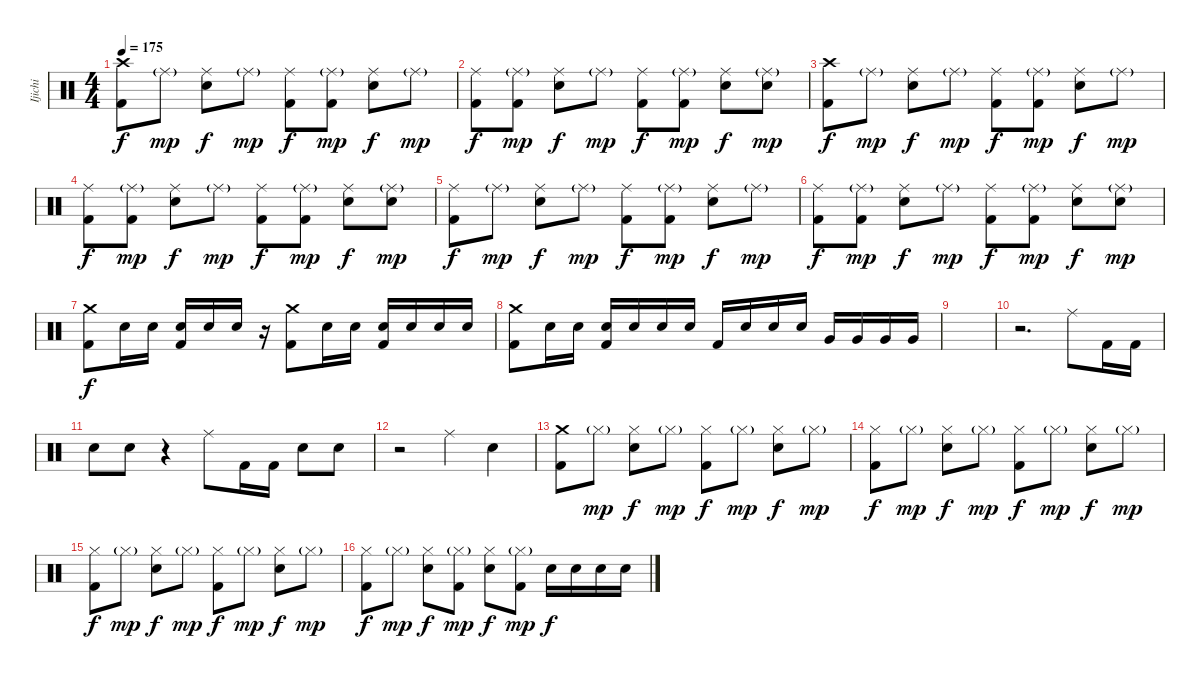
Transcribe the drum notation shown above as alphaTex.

\track ("Ijichi" "Ijichi") {instrument percussion}
\staff {score}
\articulation defaults
\ts (4 4)
\tempo 175
\clef neutral
\ks c
("Crash high (hit)" "Kick (hit) 2").8{dy f} "Ride (middle)"{g}.8{dy mp} ("Ride (middle)" "Electric Snare (hit)").8{dy f} "Ride (middle)"{g}.8{dy mp} ("Ride (middle)" "Kick (hit) 2").8{dy f} ("Ride (middle)"{g} "Kick (hit) 2").8{dy mp} ("Ride (middle)" "Electric Snare (hit)").8{dy f} "Ride (middle)"{g}.8{dy mp} |
("Ride (middle)" "Kick (hit) 2").8{dy f} ("Ride (middle)"{g} "Kick (hit) 2").8{dy mp} ("Ride (middle)" "Electric Snare (hit)").8{dy f} "Ride (middle)"{g}.8{dy mp} ("Ride (middle)" "Kick (hit) 2").8{dy f} ("Ride (middle)"{g} "Kick (hit) 2").8{dy mp} ("Ride (middle)" "Electric Snare (hit)").8{dy f} ("Ride (middle)"{g} "Electric Snare (hit)").8{dy mp} |
("Crash high (hit)" "Kick (hit) 2").8{dy f} "Ride (middle)"{g}.8{dy mp} ("Ride (middle)" "Electric Snare (hit)").8{dy f} "Ride (middle)"{g}.8{dy mp} ("Ride (middle)" "Kick (hit) 2").8{dy f} ("Ride (middle)"{g} "Kick (hit) 2").8{dy mp} ("Ride (middle)" "Electric Snare (hit)").8{dy f} "Ride (middle)"{g}.8{dy mp} |
("Ride (middle)" "Kick (hit) 2").8{dy f} ("Ride (middle)"{g} "Kick (hit) 2").8{dy mp} ("Ride (middle)" "Electric Snare (hit)").8{dy f} "Ride (middle)"{g}.8{dy mp} ("Ride (middle)" "Kick (hit) 2").8{dy f} ("Ride (middle)"{g} "Kick (hit) 2").8{dy mp} ("Ride (middle)" "Electric Snare (hit)").8{dy f} ("Ride (middle)"{g} "Electric Snare (hit)").8{dy mp} |
("Ride (middle)" "Kick (hit) 2").8{dy f} "Ride (middle)"{g}.8{dy mp} ("Ride (middle)" "Electric Snare (hit)").8{dy f} "Ride (middle)"{g}.8{dy mp} ("Ride (middle)" "Kick (hit) 2").8{dy f} ("Ride (middle)"{g} "Kick (hit) 2").8{dy mp} ("Ride (middle)" "Electric Snare (hit)").8{dy f} "Ride (middle)"{g}.8{dy mp} |
("Ride (middle)" "Kick (hit) 2").8{dy f} ("Ride (middle)"{g} "Kick (hit) 2").8{dy mp} ("Ride (middle)" "Electric Snare (hit)").8{dy f} "Ride (middle)"{g}.8{dy mp} ("Ride (middle)" "Kick (hit) 2").8{dy f} ("Ride (middle)"{g} "Kick (hit) 2").8{dy mp} ("Ride (middle)" "Electric Snare (hit)").8{dy f} ("Ride (middle)"{g} "Electric Snare (hit)").8{dy mp} |
("Crash medium (hit)" "Kick (hit) 2").8{dy f} "Electric Snare (hit)".16 "Electric Snare (hit)".16 ("Electric Snare (hit)" "Kick (hit) 2").16 "Electric Snare (hit)".16 "Electric Snare (hit)".16 r.16 ("Crash medium (hit)" "Kick (hit) 2").8 "Electric Snare (hit)".16 "Electric Snare (hit)".16 ("Electric Snare (hit)" "Kick (hit) 2").16 "Electric Snare (hit)".16 "Electric Snare (hit)".16 "Electric Snare (hit)".16 |
("Crash medium (hit)" "Kick (hit) 2").8 "Electric Snare (hit)".16 "Electric Snare (hit)".16 ("Electric Snare (hit)" "Kick (hit) 2").16 "Electric Snare (hit)".16 "Electric Snare (hit)".16 "Electric Snare (hit)".16 "Kick (hit) 2".16 "Electric Snare (hit)".16 "Electric Snare (hit)".16 "Electric Snare (hit)".16 "Very Low Tom (hit)".16 "Very Low Tom (hit)".16 "Very Low Tom (hit)".16 "Very Low Tom (hit)".16 |
|
r.2{d} "Ride (middle)".8 "Kick (hit) 2".16 "Kick (hit) 2".16 |
"Electric Snare (hit)".8 "Electric Snare (hit)".8 r.4 "Ride (middle)".8 "Kick (hit) 2".16 "Kick (hit) 2".16 "Electric Snare (hit)".8 "Electric Snare (hit)".8 |
r.2 "Ride (middle)".4 "Electric Snare (hit)".4 |
("Crash medium (hit)" "Kick (hit) 2").8 "Hi-Hat (closed)"{g}.8{dy mp} ("Hi-Hat (closed)" "Electric Snare (hit)").8{dy f} "Hi-Hat (closed)"{g}.8{dy mp} ("Hi-Hat (closed)" "Kick (hit) 2").8{dy f} "Hi-Hat (closed)"{g}.8{dy mp} ("Hi-Hat (closed)" "Electric Snare (hit)").8{dy f} "Hi-Hat (closed)"{g}.8{dy mp} |
("Hi-Hat (closed)" "Kick (hit) 2").8{dy f} "Hi-Hat (closed)"{g}.8{dy mp} ("Hi-Hat (closed)" "Electric Snare (hit)").8{dy f} "Hi-Hat (closed)"{g}.8{dy mp} ("Hi-Hat (closed)" "Kick (hit) 2").8{dy f} "Hi-Hat (closed)"{g}.8{dy mp} ("Hi-Hat (closed)" "Electric Snare (hit)").8{dy f} "Hi-Hat (closed)"{g}.8{dy mp} |
("Hi-Hat (closed)" "Kick (hit) 2").8{dy f} "Hi-Hat (closed)"{g}.8{dy mp} ("Hi-Hat (closed)" "Electric Snare (hit)").8{dy f} "Hi-Hat (closed)"{g}.8{dy mp} ("Hi-Hat (closed)" "Kick (hit) 2").8{dy f} "Hi-Hat (closed)"{g}.8{dy mp} ("Hi-Hat (closed)" "Electric Snare (hit)").8{dy f} "Hi-Hat (closed)"{g}.8{dy mp} |
("Hi-Hat (closed)" "Kick (hit) 2").8{dy f} "Hi-Hat (closed)"{g}.8{dy mp} ("Hi-Hat (closed)" "Electric Snare (hit)").8{dy f} ("Hi-Hat (closed)"{g} "Kick (hit) 2").8{dy mp} ("Hi-Hat (closed)" "Electric Snare (hit)").8{dy f} ("Hi-Hat (closed)"{g} "Kick (hit) 2").8{dy mp} "Electric Snare (hit)".16{dy f} "Electric Snare (hit)".16 "Electric Snare (hit)".16 "Electric Snare (hit)".16
